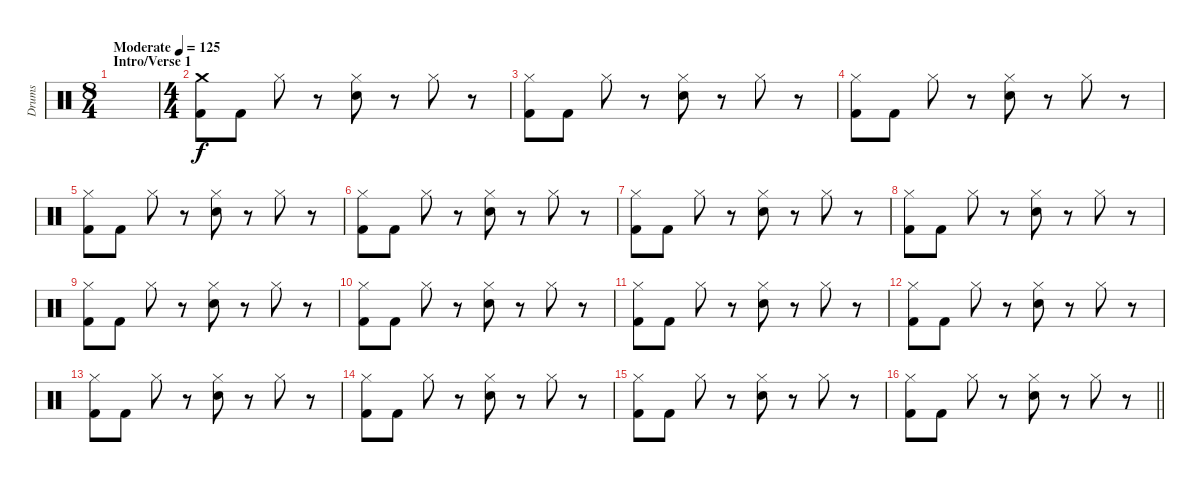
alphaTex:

\track ("Drums" "Drums") {instrument percussion}
\staff {score}
\articulation defaults
\ts (8 4)
\section ("" "Intro/Verse 1")
\tempo (125 "Moderate")
\clef neutral
\ks c
|
\ts (4 4)
("Crash medium (hit)" "Kick (hit) 2").8 "Kick (hit) 2".8 "Hi-Hat (closed)".8 r.8 ("Hi-Hat (closed)" "Electric Snare (hit)").8 r.8 "Hi-Hat (closed)".8 r.8 |
("Hi-Hat (closed)" "Kick (hit) 2").8 "Kick (hit) 2".8 "Hi-Hat (closed)".8 r.8 ("Hi-Hat (closed)" "Electric Snare (hit)").8 r.8 "Hi-Hat (closed)".8 r.8 |
("Hi-Hat (closed)" "Kick (hit) 2").8 "Kick (hit) 2".8 "Hi-Hat (closed)".8 r.8 ("Hi-Hat (closed)" "Electric Snare (hit)").8 r.8 "Hi-Hat (closed)".8 r.8 |
("Hi-Hat (closed)" "Kick (hit) 2").8 "Kick (hit) 2".8 "Hi-Hat (closed)".8 r.8 ("Hi-Hat (closed)" "Electric Snare (hit)").8 r.8 "Hi-Hat (closed)".8 r.8 |
("Hi-Hat (closed)" "Kick (hit) 2").8 "Kick (hit) 2".8 "Hi-Hat (closed)".8 r.8 ("Hi-Hat (closed)" "Electric Snare (hit)").8 r.8 "Hi-Hat (closed)".8 r.8 |
("Hi-Hat (closed)" "Kick (hit) 2").8 "Kick (hit) 2".8 "Hi-Hat (closed)".8 r.8 ("Hi-Hat (closed)" "Electric Snare (hit)").8 r.8 "Hi-Hat (closed)".8 r.8 |
("Hi-Hat (closed)" "Kick (hit) 2").8 "Kick (hit) 2".8 "Hi-Hat (closed)".8 r.8 ("Hi-Hat (closed)" "Electric Snare (hit)").8 r.8 "Hi-Hat (closed)".8 r.8 |
("Hi-Hat (closed)" "Kick (hit) 2").8 "Kick (hit) 2".8 "Hi-Hat (closed)".8 r.8 ("Hi-Hat (closed)" "Electric Snare (hit)").8 r.8 "Hi-Hat (closed)".8 r.8 |
("Hi-Hat (closed)" "Kick (hit) 2").8 "Kick (hit) 2".8 "Hi-Hat (closed)".8 r.8 ("Hi-Hat (closed)" "Electric Snare (hit)").8 r.8 "Hi-Hat (closed)".8 r.8 |
("Hi-Hat (closed)" "Kick (hit) 2").8 "Kick (hit) 2".8 "Hi-Hat (closed)".8 r.8 ("Hi-Hat (closed)" "Electric Snare (hit)").8 r.8 "Hi-Hat (closed)".8 r.8 |
("Hi-Hat (closed)" "Kick (hit) 2").8 "Kick (hit) 2".8 "Hi-Hat (closed)".8 r.8 ("Hi-Hat (closed)" "Electric Snare (hit)").8 r.8 "Hi-Hat (closed)".8 r.8 |
("Hi-Hat (closed)" "Kick (hit) 2").8 "Kick (hit) 2".8 "Hi-Hat (closed)".8 r.8 ("Hi-Hat (closed)" "Electric Snare (hit)").8 r.8 "Hi-Hat (closed)".8 r.8 |
("Hi-Hat (closed)" "Kick (hit) 2").8 "Kick (hit) 2".8 "Hi-Hat (closed)".8 r.8 ("Hi-Hat (closed)" "Electric Snare (hit)").8 r.8 "Hi-Hat (closed)".8 r.8 |
("Hi-Hat (closed)" "Kick (hit) 2").8 "Kick (hit) 2".8 "Hi-Hat (closed)".8 r.8 ("Hi-Hat (closed)" "Electric Snare (hit)").8 r.8 "Hi-Hat (closed)".8 r.8 |
\barLineRight lightlight
("Hi-Hat (closed)" "Kick (hit) 2").8 "Kick (hit) 2".8 "Hi-Hat (closed)".8 r.8 ("Hi-Hat (closed)" "Electric Snare (hit)").8 r.8 "Hi-Hat (closed)".8 r.8
